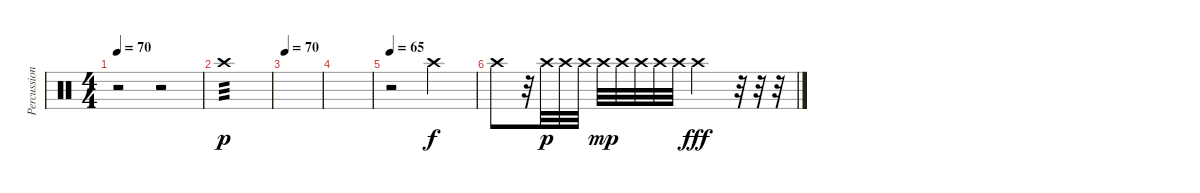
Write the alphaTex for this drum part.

\track ("Percussion" "Percussion") {instrument percussion}
\staff {score}
\articulation defaults
\ts (4 4)
\tempo 70
\clef neutral
\ks c
r.2{dy p} r.2{volume 0} |
"Crash high (hit)".1{tp 3 volume 8} |
\tempo 70
|
|
\tempo 65
r.2 "Crash high (hit)".2{dy f} |
"Crash high (hit)".8 r.32 "Crash high (hit)".32{dy p} "Crash high (hit)".32 "Crash high (hit)".32 "Crash high (hit)".32{dy mp} "Crash high (hit)".32 "Crash high (hit)".32 "Crash high (hit)".32 "Crash high (hit)".32 "Crash high (hit)".2{dy fff} r.32 r.32 r.32
